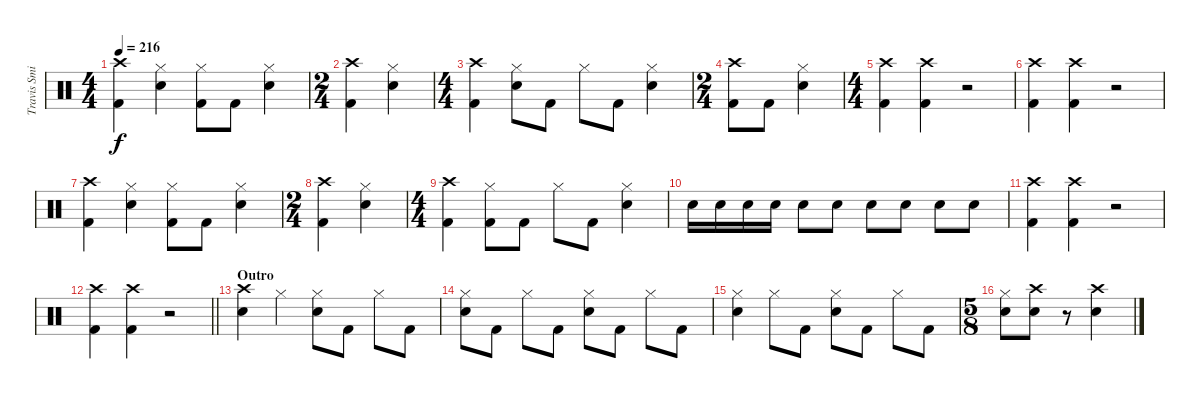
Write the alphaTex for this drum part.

\track ("Travis Smith (Drums)" "Travis Smi") {instrument percussion}
\staff {score}
\articulation defaults
\ts (4 4)
\tempo 216
\clef neutral
\ks c
("Crash high (hit)" "Kick (hit) 2").4{dy f} ("Hi-Hat (closed)" "Electric Snare (hit)").4 ("Hi-Hat (closed)" "Kick (hit) 2").8 "Kick (hit) 2".8 ("Hi-Hat (closed)" "Electric Snare (hit)").4 |
\ts (2 4)
("Crash high (hit)" "Kick (hit) 2").4 ("Hi-Hat (closed)" "Electric Snare (hit)").4 |
\ts (4 4)
("Crash high (hit)" "Kick (hit) 2").4 ("Hi-Hat (closed)" "Electric Snare (hit)").8 "Kick (hit) 2".8 "Hi-Hat (closed)".8 "Kick (hit) 2".8 ("Hi-Hat (closed)" "Electric Snare (hit)").4 |
\ts (2 4)
("Crash high (hit)" "Kick (hit) 2").8 "Kick (hit) 2".8 ("Hi-Hat (closed)" "Electric Snare (hit)").4 |
\ts (4 4)
("Crash high (hit)" "Kick (hit) 2").4 ("Crash high (hit)" "Kick (hit) 2").4 r.2 |
("Crash high (hit)" "Kick (hit) 2").4 ("Crash high (hit)" "Kick (hit) 2").4 r.2 |
("Crash high (hit)" "Kick (hit) 2").4 ("Hi-Hat (closed)" "Electric Snare (hit)").4 ("Hi-Hat (closed)" "Kick (hit) 2").8 "Kick (hit) 2".8 ("Hi-Hat (closed)" "Electric Snare (hit)").4 |
\ts (2 4)
("Crash high (hit)" "Kick (hit) 2").4 ("Hi-Hat (closed)" "Electric Snare (hit)").4 |
\ts (4 4)
("Crash high (hit)" "Kick (hit) 2").4 ("Hi-Hat (closed)" "Kick (hit) 2").8 "Kick (hit) 2".8 "Hi-Hat (closed)".8 "Kick (hit) 2".8 ("Hi-Hat (closed)" "Electric Snare (hit)").4 |
"Electric Snare (hit)".16 "Electric Snare (hit)".16 "Electric Snare (hit)".16 "Electric Snare (hit)".16 "Electric Snare (hit)".8 "Electric Snare (hit)".8 "Electric Snare (hit)".8 "Electric Snare (hit)".8 "Electric Snare (hit)".8 "Electric Snare (hit)".8 |
("Crash high (hit)" "Kick (hit) 2").4 ("Crash high (hit)" "Kick (hit) 2").4 r.2 |
\barLineRight lightlight
("Crash high (hit)" "Kick (hit) 2").4 ("Crash high (hit)" "Kick (hit) 2").4 r.2 |
\section ("" "Outro")
("Crash high (hit)" "Electric Snare (hit)").4 "Hi-Hat (closed)".4 ("Hi-Hat (closed)" "Electric Snare (hit)").8 "Kick (hit) 2".8 "Hi-Hat (closed)".8 "Kick (hit) 2".8 |
("Hi-Hat (closed)" "Electric Snare (hit)").8 "Kick (hit) 2".8 "Hi-Hat (closed)".8 "Kick (hit) 2".8 ("Hi-Hat (closed)" "Electric Snare (hit)").8 "Kick (hit) 2".8 "Hi-Hat (closed)".8 "Kick (hit) 2".8 |
("Hi-Hat (closed)" "Electric Snare (hit)").4 "Hi-Hat (closed)".8 "Kick (hit) 2".8 ("Hi-Hat (closed)" "Electric Snare (hit)").8 "Kick (hit) 2".8 "Hi-Hat (closed)".8 "Kick (hit) 2".8 |
\ts (5 8)
("Hi-Hat (closed)" "Electric Snare (hit)").8 ("Crash high (hit)" "Electric Snare (hit)").8 r.8 ("Crash high (hit)" "Electric Snare (hit)").4
